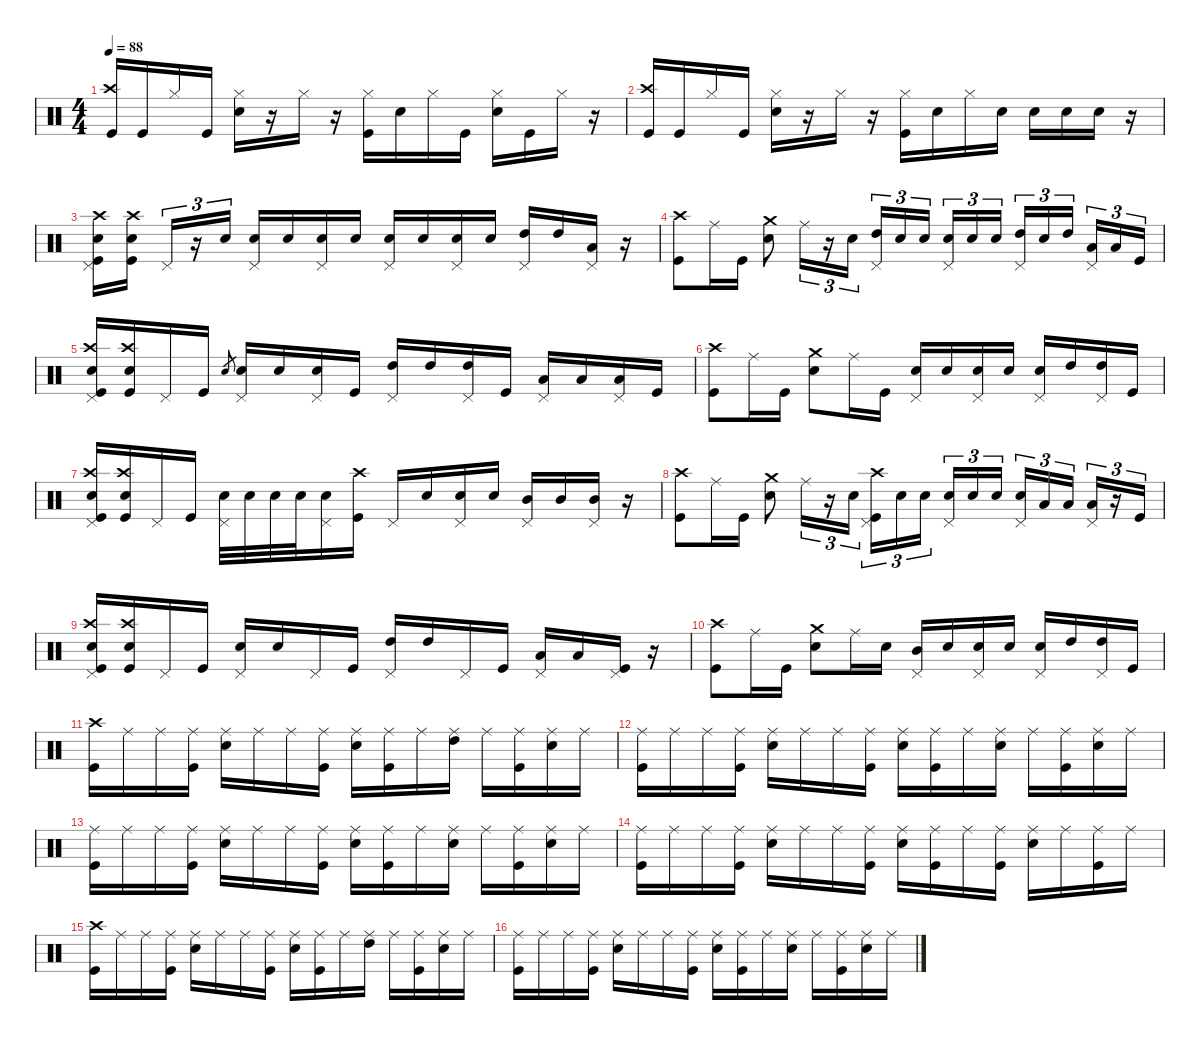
\defaultSystemsLayout 4
\hideDynamics
\bracketExtendMode nobrackets
\singleTrackTrackNamePolicy hidden
\multiTrackTrackNamePolicy hidden
\firstSystemTrackNameMode fullname
\firstSystemTrackNameOrientation horizontal
\otherSystemsTrackNameOrientation horizontal
\track ("Drums" "drm.") {instrument percussion}
\staff {score}
\articulation defaults
\ts (4 4)
\tempo 88
\clef neutral
\ks c
("Crash high (hit)" "Kick (hit)").16{dy f beam Up} "Kick (hit)".16{beam Up} "Hi-Hat (closed)".16{dy p beam Up} "Kick (hit)".16{dy f beam Up} ("Hi-Hat (closed)" "Snare (hit) 2").16{dy mp beam Down} r.16{beam Down} "Hi-Hat (closed)".16{dy p beam Down} r.16{beam Down} ("Hi-Hat (closed)" "Kick (hit)").16{dy mp beam Down} "Snare (hit) 2".16{beam Down} "Hi-Hat (closed)".16{dy p beam Down} "Kick (hit)".16{dy f beam Down} ("Hi-Hat (closed)" "Snare (hit) 2").16{dy mp beam Down} "Kick (hit)".16{dy f beam Down} "Hi-Hat (closed)".16{dy p beam Down} r.16{beam Down} |
("Crash high (hit)" "Kick (hit)").16{dy f beam Up} "Kick (hit)".16{beam Up} "Hi-Hat (closed)".16{dy p beam Up} "Kick (hit)".16{dy f beam Up} ("Hi-Hat (closed)" "Snare (hit) 2").16{dy mp beam Down} r.16{beam Down} "Hi-Hat (closed)".16{dy p beam Down} r.16{beam Down} ("Hi-Hat (closed)" "Kick (hit)").16{dy mp beam Down} "Snare (hit) 2".16{beam Down} "Hi-Hat (closed)".16{dy p beam Down} "Snare (hit) 2".16{dy pp beam Down} "Snare (hit) 2".16{dy mf beam Down} "Snare (hit) 2".16{dy f beam Down} "Snare (hit) 2".16{beam Down} r.16{beam Down} |
("Crash high (hit)" "Pedal Hi-Hat (hit)" "Snare (hit) 2" "Kick (hit)").16{beam Down} ("Crash high (hit)" "Snare (hit) 2" "Kick (hit)").16{beam Down} "Pedal Hi-Hat (hit)".16{tu (3 2) dy p beam Up} r.16{tu (3 2) beam Up} "Snare (hit) 2".16{tu (3 2) beam Up} ("Pedal Hi-Hat (hit)" "Snare (hit) 2").16{beam Up} "Snare (hit) 2".16{dy mf beam Up} ("Pedal Hi-Hat (hit)" "Snare (hit) 2").16{dy p beam Up} "Snare (hit) 2".16{dy f beam Up} ("Pedal Hi-Hat (hit)" "Snare (hit) 2").16{dy p beam Up} "Snare (hit) 2".16{dy mf beam Up} ("Pedal Hi-Hat (hit)" "Snare (hit) 2").16{dy p beam Up} "Snare (hit) 2".16{dy f beam Up} ("Pedal Hi-Hat (hit)" "High Tom (hit)").16{dy p beam Up} "High Tom (hit)".16{dy mf beam Up} ("Pedal Hi-Hat (hit)" "Low Tom (hit)").16{dy p beam Up} r.16{beam Up} |
("Crash high (hit)" "Kick (hit)").8{dy f beam Down} "Ride (middle)".16{dy mf beam Down} "Kick (hit)".16{dy f beam Down} ("Crash medium (hit)" "Snare (hit) 2").8{beam Down} "Ride (middle)".16{tu (3 2) dy mf beam Down} r.16{tu (3 2) beam Down} "Snare (hit) 2".16{tu (3 2) dy p beam Down} ("Pedal Hi-Hat (hit)" "High Tom (hit)").16{tu (3 2) beam Up} "Snare (hit) 2".16{tu (3 2) dy mp beam Up} "Snare (hit) 2".16{tu (3 2) dy mf beam Up} ("Pedal Hi-Hat (hit)" "Snare (hit) 2").16{tu (3 2) dy p beam Up} "Snare (hit) 2".16{tu (3 2) dy mp beam Up} "Snare (hit) 2".16{tu (3 2) dy mf beam Up} ("Pedal Hi-Hat (hit)" "High Tom (hit)").16{tu (3 2) dy p beam Up} "Snare (hit) 2".16{tu (3 2) dy mp beam Up} "High Tom (hit)".16{tu (3 2) dy mf beam Up} ("Pedal Hi-Hat (hit)" "Low Tom (hit)").16{tu (3 2) dy p beam Up} "Low Tom (hit)".16{tu (3 2) dy mp beam Up} "Kick (hit)".16{tu (3 2) dy f beam Up} |
("Crash high (hit)" "Pedal Hi-Hat (hit)" "Snare (hit) 2" "Kick (hit)").16{beam Up} ("Crash high (hit)" "Snare (hit) 2" "Kick (hit)").16{beam Up} "Pedal Hi-Hat (hit)".16{dy p beam Up} "Kick (hit)".16{dy f beam Up} "Snare (hit) 2".8{gr dy mp beam Up} ("Pedal Hi-Hat (hit)" "Snare (hit) 2").16{dy p beam Up} "Snare (hit) 2".16{dy mf beam Up} ("Pedal Hi-Hat (hit)" "Snare (hit) 2").16{dy p beam Up} "Kick (hit)".16{dy f beam Up} ("Pedal Hi-Hat (hit)" "High Tom (hit)").16{dy p beam Up} "High Tom (hit)".16{dy mf beam Up} ("Pedal Hi-Hat (hit)" "High Tom (hit)").16{dy p beam Up} "Kick (hit)".16{dy f beam Up} ("Pedal Hi-Hat (hit)" "Low Tom (hit)").16{dy p beam Up} "Low Tom (hit)".16{dy mf beam Up} ("Pedal Hi-Hat (hit)" "Low Tom (hit)").16{dy p beam Up} "Kick (hit)".16{dy f beam Up} |
("Crash high (hit)" "Kick (hit)").8{beam Down} "Ride (middle)".16{dy mf beam Down} "Kick (hit)".16{dy f beam Down} ("Crash medium (hit)" "Snare (hit) 2").8{beam Down} "Ride (middle)".16{dy mf beam Down} "Kick (hit)".16{dy f beam Down} ("Pedal Hi-Hat (hit)" "Snare (hit) 2").16{dy p beam Up} "Snare (hit) 2".16{dy f beam Up} ("Pedal Hi-Hat (hit)" "Snare (hit) 2").16{dy p beam Up} "Snare (hit) 2".16{dy f beam Up} ("Pedal Hi-Hat (hit)" "Snare (hit) 2").16{dy p beam Up} "High Tom (hit)".16{dy f beam Up} ("Pedal Hi-Hat (hit)" "High Tom (hit)").16{dy p beam Up} "Kick (hit)".16{dy f beam Up} |
("Crash high (hit)" "Pedal Hi-Hat (hit)" "Snare (hit) 2" "Kick (hit)").16{beam Up} ("Crash high (hit)" "Snare (hit) 2" "Kick (hit)").16{beam Up} "Pedal Hi-Hat (hit)".16{dy p beam Up} "Kick (hit)".16{dy f beam Up} ("Pedal Hi-Hat (hit)" "Snare (hit) 2").32{dy p beam Down} "Snare (hit) 2".32{dy mf beam Down} "Snare (hit) 2".32{dy mp beam Down} "Snare (hit) 2".32{beam Down} ("Pedal Hi-Hat (hit)" "Snare (hit) 2").16{dy p beam Down} ("Crash high (hit)" "Kick (hit)").16{dy mf beam Down} "Pedal Hi-Hat (hit)".16{dy p beam Up} "Snare (hit) 2".16{dy mf beam Up} ("Pedal Hi-Hat (hit)" "Snare (hit) 2").16{dy p beam Up} "Snare (hit) 2".16{dy f beam Up} ("Pedal Hi-Hat (hit)" "Mid Tom (hit)").16{dy p beam Up} "Mid Tom (hit)".16{dy f beam Up} ("Pedal Hi-Hat (hit)" "Mid Tom (hit)").16{dy p beam Up} r.16{beam Up} |
("Crash high (hit)" "Kick (hit)").8{dy f beam Down} "Ride (middle)".16{dy mf beam Down} "Kick (hit)".16{dy f beam Down} ("Crash medium (hit)" "Snare (hit) 2").8{beam Down} "Ride (middle)".16{tu (3 2) dy mf beam Down} r.16{tu (3 2) beam Down} "Snare (hit) 2".16{tu (3 2) dy p beam Down} ("Crash high (hit)" "Pedal Hi-Hat (hit)" "Kick (hit)").16{tu (3 2) dy mp beam Down} "Snare (hit) 2".16{tu (3 2) beam Down} "Snare (hit) 2".16{tu (3 2) dy mf beam Down} ("Pedal Hi-Hat (hit)" "Snare (hit) 2").16{tu (3 2) dy p beam Up} "Snare (hit) 2".16{tu (3 2) dy mp beam Up} "Snare (hit) 2".16{tu (3 2) dy mf beam Up} ("Pedal Hi-Hat (hit)" "Snare (hit) 2").16{tu (3 2) dy p beam Up} "Low Tom (hit)".16{tu (3 2) beam Up} "Low Tom (hit)".16{tu (3 2) dy mf beam Up} ("Pedal Hi-Hat (hit)" "Low Tom (hit)").16{tu (3 2) dy p beam Up} r.16{tu (3 2) beam Up} "Kick (hit)".16{tu (3 2) dy f beam Up} |
("Crash high (hit)" "Pedal Hi-Hat (hit)" "Snare (hit) 2" "Kick (hit)").16{beam Up} ("Crash high (hit)" "Snare (hit) 2" "Kick (hit)").16{beam Up} "Pedal Hi-Hat (hit)".16{dy p beam Up} "Kick (hit)".16{dy f beam Up} ("Pedal Hi-Hat (hit)" "Snare (hit) 2").16{dy p beam Up} "Snare (hit) 2".16{dy mf beam Up} "Pedal Hi-Hat (hit)".16{dy p beam Up} "Kick (hit)".16{dy f beam Up} ("Pedal Hi-Hat (hit)" "High Tom (hit)").16{dy p beam Up} "High Tom (hit)".16{dy mf beam Up} "Pedal Hi-Hat (hit)".16{dy p beam Up} "Kick (hit)".16{dy f beam Up} ("Pedal Hi-Hat (hit)" "Low Tom (hit)").16{dy p beam Up} "Low Tom (hit)".16{dy mf beam Up} ("Pedal Hi-Hat (hit)" "Kick (hit)").16{dy p beam Up} r.16{beam Up} |
("Crash high (hit)" "Kick (hit)").8{dy f beam Down} "Ride (middle)".16{dy mf beam Down} "Kick (hit)".16{dy f beam Down} ("Crash medium (hit)" "Snare (hit) 2").8{beam Down} "Ride (middle)".16{dy mf beam Down} "Snare (hit) 2".16{beam Down} ("Pedal Hi-Hat (hit)" "Mid Tom (hit)").16{dy p beam Up} "Snare (hit) 2".16{dy f beam Up} ("Pedal Hi-Hat (hit)" "Snare (hit) 2").16{dy p beam Up} "Snare (hit) 2".16{dy f beam Up} ("Pedal Hi-Hat (hit)" "Snare (hit) 2").16{dy p beam Up} "High Tom (hit)".16{dy f beam Up} ("Pedal Hi-Hat (hit)" "High Tom (hit)").16{dy p beam Up} "Kick (hit)".16{dy f beam Up} |
("Crash high (hit)" "Kick (hit)").16{beam Down} "Ride (middle)".16{dy mp beam Down} "Ride (middle)".16{dy f beam Down} ("Ride (middle)" "Kick (hit)").16{dy mp beam Down} ("Ride (middle)" "Snare (hit) 2").16{dy f beam Down} "Ride (middle)".16{dy mp beam Down} "Ride (middle)".16{dy f beam Down} ("Ride (middle)" "Kick (hit)").16{dy mp beam Down} ("Ride (middle)" "Snare (hit) 2").16{dy f beam Down} ("Ride (middle)" "Kick (hit)").16{dy mp beam Down} "Ride (middle)".16{dy f beam Down} ("Ride (middle)" "High Tom (hit)").16{dy mp beam Down} "Ride (middle)".16{dy f beam Down} ("Ride (middle)" "Kick (hit)").16{dy mp beam Down} ("Ride (middle)" "Snare (hit) 2").16{dy f beam Down} "Ride (middle)".16{dy mp beam Down} |
("Ride (middle)" "Kick (hit)").16{dy f beam Down} "Ride (middle)".16{dy mp beam Down} "Ride (middle)".16{dy f beam Down} ("Ride (middle)" "Kick (hit)").16{dy mp beam Down} ("Ride (middle)" "Snare (hit) 2").16{dy f beam Down} "Ride (middle)".16{dy mp beam Down} "Ride (middle)".16{dy f beam Down} ("Ride (middle)" "Kick (hit)").16{dy mp beam Down} ("Ride (middle)" "Snare (hit) 2").16{dy f beam Down} ("Ride (middle)" "Kick (hit)").16{dy mp beam Down} "Ride (middle)".16{dy f beam Down} ("Ride (middle)" "Snare (hit) 2").16{dy mp beam Down} "Ride (middle)".16{dy f beam Down} ("Ride (middle)" "Kick (hit)").16{dy mp beam Down} ("Ride (middle)" "Snare (hit) 2").16{dy f beam Down} "Ride (middle)".16{dy mp beam Down} |
("Ride (middle)" "Kick (hit)").16{dy f beam Down} "Ride (middle)".16{dy mp beam Down} "Ride (middle)".16{dy f beam Down} ("Ride (middle)" "Kick (hit)").16{dy mp beam Down} ("Ride (middle)" "Snare (hit) 2").16{dy f beam Down} "Ride (middle)".16{dy mp beam Down} "Ride (middle)".16{dy f beam Down} ("Ride (middle)" "Kick (hit)").16{dy mp beam Down} ("Ride (middle)" "Snare (hit) 2").16{dy f beam Down} ("Ride (middle)" "Kick (hit)").16{dy mp beam Down} "Ride (middle)".16{dy f beam Down} ("Ride (middle)" "Snare (hit) 2").16{dy mp beam Down} "Ride (middle)".16{dy f beam Down} ("Ride (middle)" "Kick (hit)").16{dy mp beam Down} ("Ride (middle)" "Snare (hit) 2").16{dy f beam Down} "Ride (middle)".16{dy mp beam Down} |
("Ride (middle)" "Kick (hit)").16{dy f beam Down} "Ride (middle)".16{dy mp beam Down} "Ride (middle)".16{dy f beam Down} ("Ride (middle)" "Kick (hit)").16{dy mp beam Down} ("Ride (middle)" "Snare (hit) 2").16{dy f beam Down} "Ride (middle)".16{dy mp beam Down} "Ride (middle)".16{dy f beam Down} ("Ride (middle)" "Kick (hit)").16{dy mp beam Down} ("Ride (middle)" "Snare (hit) 2").16{dy f beam Down} ("Ride (middle)" "Kick (hit)").16{dy mp beam Down} "Ride (middle)".16{dy f beam Down} ("Ride (middle)" "Kick (hit)").16{dy mp beam Down} ("Ride (middle)" "Snare (hit) 2").16{dy f beam Down} "Ride (middle)".16{dy mp beam Down} ("Ride (middle)" "Kick (hit)").16{dy f beam Down} "Ride (middle)".16{dy mp beam Down} |
("Crash high (hit)" "Kick (hit)").16{dy f beam Down} "Ride (middle)".16{dy mp beam Down} "Ride (middle)".16{dy f beam Down} ("Ride (middle)" "Kick (hit)").16{dy mp beam Down} ("Ride (middle)" "Snare (hit) 2").16{dy f beam Down} "Ride (middle)".16{dy mp beam Down} "Ride (middle)".16{dy f beam Down} ("Ride (middle)" "Kick (hit)").16{dy mp beam Down} ("Ride (middle)" "Snare (hit) 2").16{dy f beam Down} ("Ride (middle)" "Kick (hit)").16{dy mp beam Down} "Ride (middle)".16{dy f beam Down} ("Ride (middle)" "High Tom (hit)").16{dy mp beam Down} "Ride (middle)".16{dy f beam Down} ("Ride (middle)" "Kick (hit)").16{dy mp beam Down} ("Ride (middle)" "Snare (hit) 2").16{dy f beam Down} "Ride (middle)".16{dy mp beam Down} |
("Ride (middle)" "Kick (hit)").16{dy f beam Down} "Ride (middle)".16{dy mp beam Down} "Ride (middle)".16{dy f beam Down} ("Ride (middle)" "Kick (hit)").16{dy mp beam Down} ("Ride (middle)" "Snare (hit) 2").16{dy f beam Down} "Ride (middle)".16{dy mp beam Down} "Ride (middle)".16{dy f beam Down} ("Ride (middle)" "Kick (hit)").16{dy mp beam Down} ("Ride (middle)" "Snare (hit) 2").16{dy f beam Down} ("Ride (middle)" "Kick (hit)").16{dy mp beam Down} "Ride (middle)".16{dy f beam Down} ("Ride (middle)" "Snare (hit) 2").16{dy mp beam Down} "Ride (middle)".16{dy f beam Down} ("Ride (middle)" "Kick (hit)").16{dy mp beam Down} ("Ride (middle)" "Snare (hit) 2").16{dy f beam Down} "Ride (middle)".16{dy mp beam Down}
